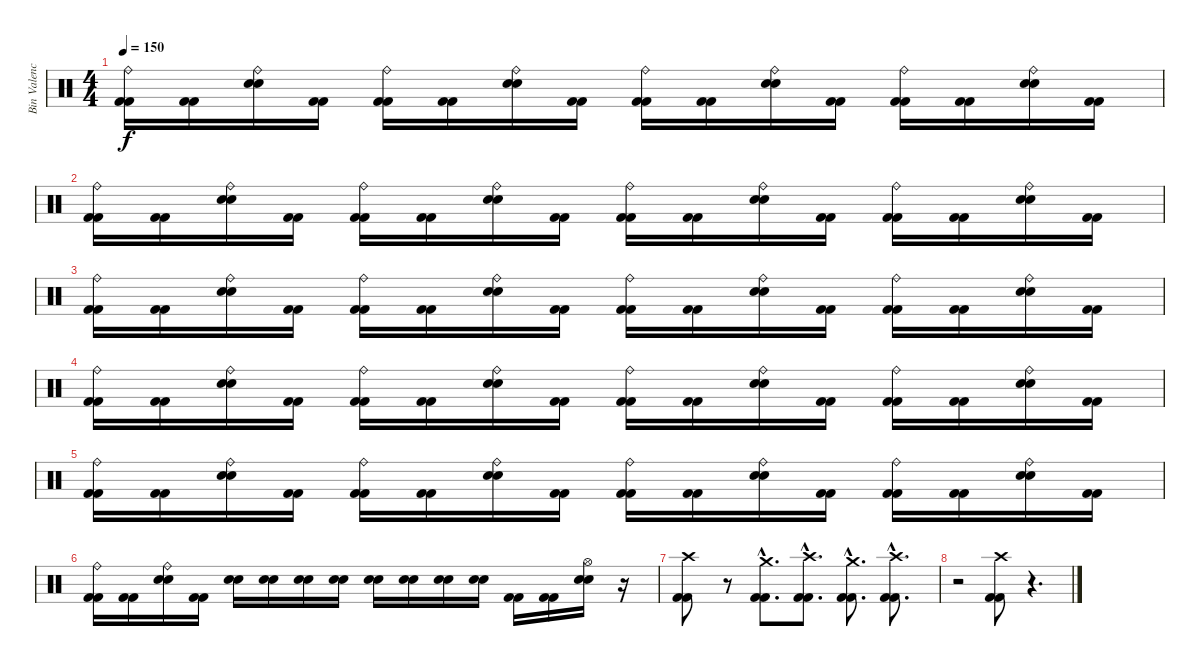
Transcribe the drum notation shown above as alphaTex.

\track ("Bin Valencia (bateria)" "Bin Valenc") {instrument percussion}
\staff {score}
\articulation defaults
\ts (4 4)
\tempo 150
\clef neutral
\ks c
("Ride (bell)" "Kick (hit) 2" "Kick (hit) 2").16{dy f} ("Kick (hit) 2" "Kick (hit) 2").16 ("Ride (bell)" "Snare (hit) 2" "Snare (hit) 2").16 ("Kick (hit) 2" "Kick (hit) 2").16 ("Ride (bell)" "Kick (hit) 2" "Kick (hit) 2").16 ("Kick (hit) 2" "Kick (hit) 2").16 ("Ride (bell)" "Snare (hit) 2" "Snare (hit) 2").16 ("Kick (hit) 2" "Kick (hit) 2").16 ("Ride (bell)" "Kick (hit) 2" "Kick (hit) 2").16 ("Kick (hit) 2" "Kick (hit) 2").16 ("Ride (bell)" "Snare (hit) 2" "Snare (hit) 2").16 ("Kick (hit) 2" "Kick (hit) 2").16 ("Ride (bell)" "Kick (hit) 2" "Kick (hit) 2").16 ("Kick (hit) 2" "Kick (hit) 2").16 ("Ride (bell)" "Snare (hit) 2" "Snare (hit) 2").16 ("Kick (hit) 2" "Kick (hit) 2").16 |
("Ride (bell)" "Kick (hit) 2" "Kick (hit) 2").16 ("Kick (hit) 2" "Kick (hit) 2").16 ("Ride (bell)" "Snare (hit) 2" "Snare (hit) 2").16 ("Kick (hit) 2" "Kick (hit) 2").16 ("Ride (bell)" "Kick (hit) 2" "Kick (hit) 2").16 ("Kick (hit) 2" "Kick (hit) 2").16 ("Ride (bell)" "Snare (hit) 2" "Snare (hit) 2").16 ("Kick (hit) 2" "Kick (hit) 2").16 ("Ride (bell)" "Kick (hit) 2" "Kick (hit) 2").16 ("Kick (hit) 2" "Kick (hit) 2").16 ("Ride (bell)" "Snare (hit) 2" "Snare (hit) 2").16 ("Kick (hit) 2" "Kick (hit) 2").16 ("Ride (bell)" "Kick (hit) 2" "Kick (hit) 2").16 ("Kick (hit) 2" "Kick (hit) 2").16 ("Ride (bell)" "Snare (hit) 2" "Snare (hit) 2").16 ("Kick (hit) 2" "Kick (hit) 2").16 |
("Ride (bell)" "Kick (hit) 2" "Kick (hit) 2").16 ("Kick (hit) 2" "Kick (hit) 2").16 ("Ride (bell)" "Snare (hit) 2" "Snare (hit) 2").16 ("Kick (hit) 2" "Kick (hit) 2").16 ("Ride (bell)" "Kick (hit) 2" "Kick (hit) 2").16 ("Kick (hit) 2" "Kick (hit) 2").16 ("Ride (bell)" "Snare (hit) 2" "Snare (hit) 2").16 ("Kick (hit) 2" "Kick (hit) 2").16 ("Ride (bell)" "Kick (hit) 2" "Kick (hit) 2").16 ("Kick (hit) 2" "Kick (hit) 2").16 ("Ride (bell)" "Snare (hit) 2" "Snare (hit) 2").16 ("Kick (hit) 2" "Kick (hit) 2").16 ("Ride (bell)" "Kick (hit) 2" "Kick (hit) 2").16 ("Kick (hit) 2" "Kick (hit) 2").16 ("Ride (bell)" "Snare (hit) 2" "Snare (hit) 2").16 ("Kick (hit) 2" "Kick (hit) 2").16 |
("Ride (bell)" "Kick (hit) 2" "Kick (hit) 2").16 ("Kick (hit) 2" "Kick (hit) 2").16 ("Ride (bell)" "Snare (hit) 2" "Snare (hit) 2").16 ("Kick (hit) 2" "Kick (hit) 2").16 ("Ride (bell)" "Kick (hit) 2" "Kick (hit) 2").16 ("Kick (hit) 2" "Kick (hit) 2").16 ("Ride (bell)" "Snare (hit) 2" "Snare (hit) 2").16 ("Kick (hit) 2" "Kick (hit) 2").16 ("Ride (bell)" "Kick (hit) 2" "Kick (hit) 2").16 ("Kick (hit) 2" "Kick (hit) 2").16 ("Ride (bell)" "Snare (hit) 2" "Snare (hit) 2").16 ("Kick (hit) 2" "Kick (hit) 2").16 ("Ride (bell)" "Kick (hit) 2" "Kick (hit) 2").16 ("Kick (hit) 2" "Kick (hit) 2").16 ("Ride (bell)" "Snare (hit) 2" "Snare (hit) 2").16 ("Kick (hit) 2" "Kick (hit) 2").16 |
("Ride (bell)" "Kick (hit) 2" "Kick (hit) 2").16 ("Kick (hit) 2" "Kick (hit) 2").16 ("Ride (bell)" "Snare (hit) 2" "Snare (hit) 2").16 ("Kick (hit) 2" "Kick (hit) 2").16 ("Ride (bell)" "Kick (hit) 2" "Kick (hit) 2").16 ("Kick (hit) 2" "Kick (hit) 2").16 ("Ride (bell)" "Snare (hit) 2" "Snare (hit) 2").16 ("Kick (hit) 2" "Kick (hit) 2").16 ("Ride (bell)" "Kick (hit) 2" "Kick (hit) 2").16 ("Kick (hit) 2" "Kick (hit) 2").16 ("Ride (bell)" "Snare (hit) 2" "Snare (hit) 2").16 ("Kick (hit) 2" "Kick (hit) 2").16 ("Ride (bell)" "Kick (hit) 2" "Kick (hit) 2").16 ("Kick (hit) 2" "Kick (hit) 2").16 ("Ride (bell)" "Snare (hit) 2" "Snare (hit) 2").16 ("Kick (hit) 2" "Kick (hit) 2").16 |
("Ride (bell)" "Kick (hit) 2" "Kick (hit) 2").16 ("Kick (hit) 2" "Kick (hit) 2").16 ("Ride (bell)" "Snare (hit) 2" "Snare (hit) 2").16 ("Kick (hit) 2" "Kick (hit) 2").16 ("Snare (hit) 2" "Snare (hit) 2").16 ("Snare (hit) 2" "Snare (hit) 2").16 ("Snare (hit) 2" "Snare (hit) 2").16 ("Snare (hit) 2" "Snare (hit) 2").16 ("Snare (hit) 2" "Snare (hit) 2").16 ("Snare (hit) 2" "Snare (hit) 2").16 ("Snare (hit) 2" "Snare (hit) 2").16 ("Snare (hit) 2" "Snare (hit) 2").16 ("Kick (hit) 2" "Kick (hit) 2").16 ("Kick (hit) 2" "Kick (hit) 2").16 ("Hi-Hat (open)" "Snare (hit) 2" "Snare (hit) 2").16 r.16 |
("Crash high (hit)" "Kick (hit) 2" "Kick (hit) 2").8 r.8 ("Crash medium (hit)"{hac} "Kick (hit) 2"{hac} "Kick (hit) 2"{hac}).8{d} ("Crash high (hit)"{hac} "Kick (hit) 2"{hac} "Kick (hit) 2"{hac}).8{d} ("Crash medium (hit)"{hac} "Kick (hit) 2"{hac} "Kick (hit) 2"{hac}).8{d} ("Crash high (hit)"{hac} "Kick (hit) 2"{hac} "Kick (hit) 2"{hac}).8{d} |
r.2 ("Crash high (hit)" "Kick (hit) 2" "Kick (hit) 2").8 r.4{d}
